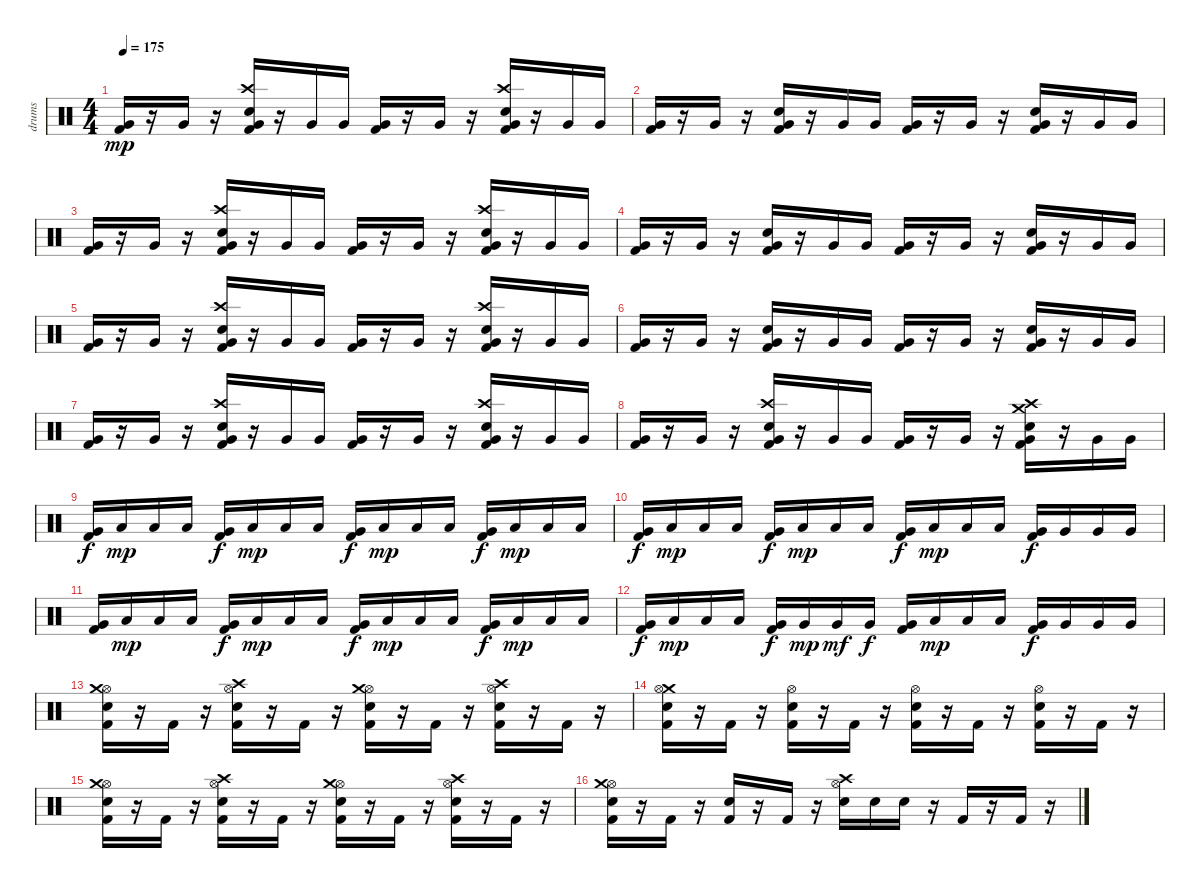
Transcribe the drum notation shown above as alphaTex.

\track ("drums" "drums") {instrument percussion}
\staff {score}
\articulation defaults
\ts (4 4)
\tempo 175
\clef neutral
\ks c
("Kick (hit) 2" "Very Low Tom (hit)").16{dy mp} r.16 "Very Low Tom (hit)".16 r.16 ("Crash high (hit)" "Electric Snare (hit)" "Kick (hit) 2" "Very Low Tom (hit)").16 r.16 "Very Low Tom (hit)".16 "Very Low Tom (hit)".16 ("Kick (hit) 2" "Very Low Tom (hit)").16 r.16 "Very Low Tom (hit)".16 r.16 ("Crash high (hit)" "Electric Snare (hit)" "Kick (hit) 2" "Very Low Tom (hit)").16 r.16 "Very Low Tom (hit)".16 "Very Low Tom (hit)".16 |
("Kick (hit) 2" "Very Low Tom (hit)").16 r.16 "Very Low Tom (hit)".16 r.16 ("Electric Snare (hit)" "Kick (hit) 2" "Very Low Tom (hit)").16 r.16 "Very Low Tom (hit)".16 "Very Low Tom (hit)".16 ("Kick (hit) 2" "Very Low Tom (hit)").16 r.16 "Very Low Tom (hit)".16 r.16 ("Electric Snare (hit)" "Kick (hit) 2" "Very Low Tom (hit)").16 r.16 "Very Low Tom (hit)".16 "Very Low Tom (hit)".16 |
("Kick (hit) 2" "Very Low Tom (hit)").16 r.16 "Very Low Tom (hit)".16 r.16 ("Crash high (hit)" "Electric Snare (hit)" "Kick (hit) 2" "Very Low Tom (hit)").16 r.16 "Very Low Tom (hit)".16 "Very Low Tom (hit)".16 ("Kick (hit) 2" "Very Low Tom (hit)").16 r.16 "Very Low Tom (hit)".16 r.16 ("Crash high (hit)" "Electric Snare (hit)" "Kick (hit) 2" "Very Low Tom (hit)").16 r.16 "Very Low Tom (hit)".16 "Very Low Tom (hit)".16 |
("Kick (hit) 2" "Very Low Tom (hit)").16 r.16 "Very Low Tom (hit)".16 r.16 ("Electric Snare (hit)" "Kick (hit) 2" "Very Low Tom (hit)").16 r.16 "Very Low Tom (hit)".16 "Very Low Tom (hit)".16 ("Kick (hit) 2" "Very Low Tom (hit)").16 r.16 "Very Low Tom (hit)".16 r.16 ("Electric Snare (hit)" "Kick (hit) 2" "Very Low Tom (hit)").16 r.16 "Very Low Tom (hit)".16 "Very Low Tom (hit)".16 |
("Kick (hit) 2" "Very Low Tom (hit)").16 r.16 "Very Low Tom (hit)".16 r.16 ("Crash high (hit)" "Electric Snare (hit)" "Kick (hit) 2" "Very Low Tom (hit)").16 r.16 "Very Low Tom (hit)".16 "Very Low Tom (hit)".16 ("Kick (hit) 2" "Very Low Tom (hit)").16 r.16 "Very Low Tom (hit)".16 r.16 ("Crash high (hit)" "Electric Snare (hit)" "Kick (hit) 2" "Very Low Tom (hit)").16 r.16 "Very Low Tom (hit)".16 "Very Low Tom (hit)".16 |
("Kick (hit) 2" "Very Low Tom (hit)").16 r.16 "Very Low Tom (hit)".16 r.16 ("Electric Snare (hit)" "Kick (hit) 2" "Very Low Tom (hit)").16 r.16 "Very Low Tom (hit)".16 "Very Low Tom (hit)".16 ("Kick (hit) 2" "Very Low Tom (hit)").16 r.16 "Very Low Tom (hit)".16 r.16 ("Electric Snare (hit)" "Kick (hit) 2" "Very Low Tom (hit)").16 r.16 "Very Low Tom (hit)".16 "Very Low Tom (hit)".16 |
("Kick (hit) 2" "Very Low Tom (hit)").16 r.16 "Very Low Tom (hit)".16 r.16 ("Crash high (hit)" "Electric Snare (hit)" "Kick (hit) 2" "Very Low Tom (hit)").16 r.16 "Very Low Tom (hit)".16 "Very Low Tom (hit)".16 ("Kick (hit) 2" "Very Low Tom (hit)").16 r.16 "Very Low Tom (hit)".16 r.16 ("Crash high (hit)" "Electric Snare (hit)" "Kick (hit) 2" "Very Low Tom (hit)").16 r.16 "Very Low Tom (hit)".16 "Very Low Tom (hit)".16 |
("Kick (hit) 2" "Very Low Tom (hit)").16 r.16 "Very Low Tom (hit)".16 r.16 ("Crash high (hit)" "Electric Snare (hit)" "Kick (hit) 2" "Very Low Tom (hit)").16 r.16 "Very Low Tom (hit)".16 "Very Low Tom (hit)".16 ("Kick (hit) 2" "Very Low Tom (hit)").16 r.16 "Very Low Tom (hit)".16 r.16 ("Crash medium (hit)" "Crash high (hit)" "Electric Snare (hit)" "Kick (hit) 2" "Very Low Tom (hit)").16 r.16 "Very Low Tom (hit)".16 "Very Low Tom (hit)".16 |
("Very Low Tom (hit)" "Kick (hit) 2").16{dy f} "Low Tom (hit)".16{dy mp} "Low Tom (hit)".16 "Low Tom (hit)".16 ("Very Low Tom (hit)" "Kick (hit) 2").16{dy f} "Low Tom (hit)".16{dy mp} "Low Tom (hit)".16 "Low Tom (hit)".16 ("Very Low Tom (hit)" "Kick (hit) 2").16{dy f} "Low Tom (hit)".16{dy mp} "Low Tom (hit)".16 "Low Tom (hit)".16 ("Very Low Tom (hit)" "Kick (hit) 2").16{dy f} "Low Tom (hit)".16{dy mp} "Low Tom (hit)".16 "Low Tom (hit)".16 |
("Very Low Tom (hit)" "Kick (hit) 2").16{dy f} "Low Tom (hit)".16{dy mp} "Low Tom (hit)".16 "Low Tom (hit)".16 ("Very Low Tom (hit)" "Kick (hit) 2").16{dy f} "Low Tom (hit)".16{dy mp} "Low Tom (hit)".16 "Low Tom (hit)".16 ("Very Low Tom (hit)" "Kick (hit) 2").16{dy f} "Low Tom (hit)".16{dy mp} "Low Tom (hit)".16 "Low Tom (hit)".16 ("Very Low Tom (hit)" "Kick (hit) 2").16{dy f} "Very Low Tom (hit)".16 "Very Low Tom (hit)".16 "Very Low Tom (hit)".16 |
("Very Low Tom (hit)" "Kick (hit) 2").16 "Low Tom (hit)".16{dy mp} "Low Tom (hit)".16 "Low Tom (hit)".16 ("Very Low Tom (hit)" "Kick (hit) 2").16{dy f} "Low Tom (hit)".16{dy mp} "Low Tom (hit)".16 "Low Tom (hit)".16 ("Very Low Tom (hit)" "Kick (hit) 2").16{dy f} "Low Tom (hit)".16{dy mp} "Low Tom (hit)".16 "Low Tom (hit)".16 ("Very Low Tom (hit)" "Kick (hit) 2").16{dy f} "Low Tom (hit)".16{dy mp} "Low Tom (hit)".16 "Low Tom (hit)".16 |
("Very Low Tom (hit)" "Kick (hit) 2").16{dy f} "Low Tom (hit)".16{dy mp} "Low Tom (hit)".16 "Low Tom (hit)".16 ("Very Low Tom (hit)" "Kick (hit) 2").16{dy f} "Very Low Tom (hit)".16{dy mp} "Very Low Tom (hit)".16{dy mf} "Very Low Tom (hit)".16{dy f} ("Very Low Tom (hit)" "Kick (hit) 2").16 "Low Tom (hit)".16{dy mp} "Low Tom (hit)".16 "Low Tom (hit)".16 ("Very Low Tom (hit)" "Kick (hit) 2").16{dy f} "Very Low Tom (hit)".16 "Very Low Tom (hit)".16 "Very Low Tom (hit)".16 |
("Hi-Hat (open)" "Electric Snare (hit)" "Kick (hit) 2" "Crash medium (hit)").16 r.16 "Kick (hit) 2".16 r.16 ("Hi-Hat (open)" "Electric Snare (hit)" "Kick (hit) 2" "Crash high (hit)").16 r.16 "Kick (hit) 2".16 r.16 ("Hi-Hat (open)" "Electric Snare (hit)" "Kick (hit) 2" "Crash medium (hit)").16 r.16 "Kick (hit) 2".16 r.16 ("Hi-Hat (open)" "Electric Snare (hit)" "Kick (hit) 2" "Crash high (hit)").16 r.16 "Kick (hit) 2".16 r.16 |
("Crash medium (hit)" "Hi-Hat (open)" "Electric Snare (hit)" "Kick (hit) 2").16 r.16 "Kick (hit) 2".16 r.16 ("Hi-Hat (open)" "Electric Snare (hit)" "Kick (hit) 2").16 r.16 "Kick (hit) 2".16 r.16 ("Hi-Hat (open)" "Electric Snare (hit)" "Kick (hit) 2").16 r.16 "Kick (hit) 2".16 r.16 ("Hi-Hat (open)" "Electric Snare (hit)" "Kick (hit) 2").16 r.16 "Kick (hit) 2".16 r.16 |
("Hi-Hat (open)" "Electric Snare (hit)" "Kick (hit) 2" "Crash medium (hit)").16 r.16 "Kick (hit) 2".16 r.16 ("Hi-Hat (open)" "Electric Snare (hit)" "Kick (hit) 2" "Crash high (hit)").16 r.16 "Kick (hit) 2".16 r.16 ("Hi-Hat (open)" "Electric Snare (hit)" "Kick (hit) 2" "Crash medium (hit)").16 r.16 "Kick (hit) 2".16 r.16 ("Hi-Hat (open)" "Electric Snare (hit)" "Kick (hit) 2" "Crash high (hit)").16 r.16 "Kick (hit) 2".16 r.16 |
("Hi-Hat (open)" "Crash medium (hit)" "Electric Snare (hit)" "Kick (hit) 2").16 r.16 "Kick (hit) 2".16 r.16 ("Electric Snare (hit)" "Kick (hit) 2").16 r.16 "Kick (hit) 2".16 r.16 ("Crash high (hit)" "Hi-Hat (open)" "Electric Snare (hit)").16 "Electric Snare (hit)".16 "Electric Snare (hit)".16 r.16 "Kick (hit) 2".16 r.16 "Kick (hit) 2".16 r.16
